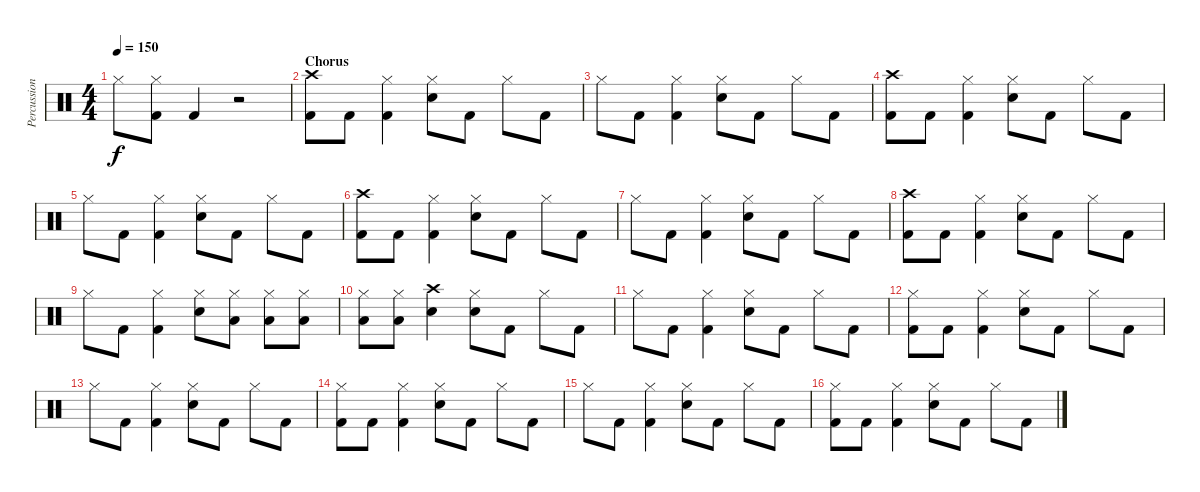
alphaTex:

\track ("Percussion" "Percussion") {instrument percussion}
\staff {score}
\articulation defaults
\ts (4 4)
\tempo 150
\clef neutral
\ks c "Hi-Hat (closed)".8{dy f}
("Hi-Hat (closed)" "Kick (hit) 2").8 "Kick (hit) 2".4 r.2 |
\section ("" "Chorus")
("Crash high (hit)" "Kick (hit) 2").8 "Kick (hit) 2".8 ("Hi-Hat (closed)" "Kick (hit) 2").4 ("Hi-Hat (closed)" "Electric Snare (hit)").8 "Kick (hit) 2".8 "Hi-Hat (closed)".8 "Kick (hit) 2".8 |
"Hi-Hat (closed)".8 "Kick (hit) 2".8 ("Hi-Hat (closed)" "Kick (hit) 2").4 ("Hi-Hat (closed)" "Electric Snare (hit)").8 "Kick (hit) 2".8 "Hi-Hat (closed)".8 "Kick (hit) 2".8 |
("Crash high (hit)" "Kick (hit) 2").8 "Kick (hit) 2".8 ("Hi-Hat (closed)" "Kick (hit) 2").4 ("Hi-Hat (closed)" "Electric Snare (hit)").8 "Kick (hit) 2".8 "Hi-Hat (closed)".8 "Kick (hit) 2".8 |
"Hi-Hat (closed)".8 "Kick (hit) 2".8 ("Hi-Hat (closed)" "Kick (hit) 2").4 ("Hi-Hat (closed)" "Electric Snare (hit)").8 "Kick (hit) 2".8 "Hi-Hat (closed)".8 "Kick (hit) 2".8 |
("Crash high (hit)" "Kick (hit) 2").8 "Kick (hit) 2".8 ("Hi-Hat (closed)" "Kick (hit) 2").4 ("Hi-Hat (closed)" "Electric Snare (hit)").8 "Kick (hit) 2".8 "Hi-Hat (closed)".8 "Kick (hit) 2".8 |
"Hi-Hat (closed)".8 "Kick (hit) 2".8 ("Hi-Hat (closed)" "Kick (hit) 2").4 ("Hi-Hat (closed)" "Electric Snare (hit)").8 "Kick (hit) 2".8 "Hi-Hat (closed)".8 "Kick (hit) 2".8 |
("Crash high (hit)" "Kick (hit) 2").8 "Kick (hit) 2".8 ("Hi-Hat (closed)" "Kick (hit) 2").4 ("Hi-Hat (closed)" "Electric Snare (hit)").8 "Kick (hit) 2".8 "Hi-Hat (closed)".8 "Kick (hit) 2".8 |
"Hi-Hat (closed)".8 "Kick (hit) 2".8 ("Hi-Hat (closed)" "Kick (hit) 2").4 ("Hi-Hat (closed)" "Electric Snare (hit)").8 ("Low Tom (hit)" "Hi-Hat (closed)").8 ("Low Tom (hit)" "Hi-Hat (closed)").8 ("Low Tom (hit)" "Hi-Hat (closed)").8 |
("Low Tom (hit)" "Hi-Hat (closed)").8 ("Low Tom (hit)" "Hi-Hat (closed)").8 ("Crash high (hit)" "Electric Snare (hit)").4 ("Hi-Hat (closed)" "Electric Snare (hit)").8 "Kick (hit) 2".8 "Hi-Hat (closed)".8 "Kick (hit) 2".8 |
"Hi-Hat (closed)".8 "Kick (hit) 2".8 ("Hi-Hat (closed)" "Kick (hit) 2").4 ("Hi-Hat (closed)" "Electric Snare (hit)").8 "Kick (hit) 2".8 "Hi-Hat (closed)".8 "Kick (hit) 2".8 |
("Hi-Hat (closed)" "Kick (hit) 2").8 "Kick (hit) 2".8 ("Hi-Hat (closed)" "Kick (hit) 2").4 ("Hi-Hat (closed)" "Electric Snare (hit)").8 "Kick (hit) 2".8 "Hi-Hat (closed)".8 "Kick (hit) 2".8 |
"Hi-Hat (closed)".8 "Kick (hit) 2".8 ("Hi-Hat (closed)" "Kick (hit) 2").4 ("Hi-Hat (closed)" "Electric Snare (hit)").8 "Kick (hit) 2".8 "Hi-Hat (closed)".8 "Kick (hit) 2".8 |
("Hi-Hat (closed)" "Kick (hit) 2").8 "Kick (hit) 2".8 ("Hi-Hat (closed)" "Kick (hit) 2").4 ("Hi-Hat (closed)" "Electric Snare (hit)").8 "Kick (hit) 2".8 "Hi-Hat (closed)".8 "Kick (hit) 2".8 |
"Hi-Hat (closed)".8 "Kick (hit) 2".8 ("Hi-Hat (closed)" "Kick (hit) 2").4 ("Hi-Hat (closed)" "Electric Snare (hit)").8 "Kick (hit) 2".8 "Hi-Hat (closed)".8 "Kick (hit) 2".8 |
("Hi-Hat (closed)" "Kick (hit) 2").8 "Kick (hit) 2".8 ("Hi-Hat (closed)" "Kick (hit) 2").4 ("Hi-Hat (closed)" "Electric Snare (hit)").8 "Kick (hit) 2".8 "Hi-Hat (closed)".8 "Kick (hit) 2".8
